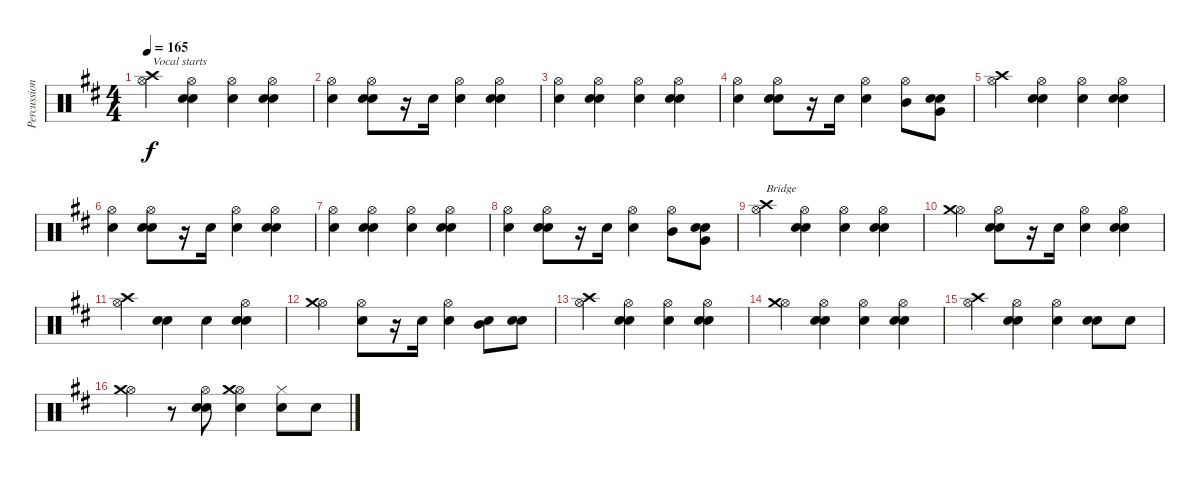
\track ("Percussion" "Percussion") {instrument percussion}
\staff {score}
\articulation defaults
\ts (4 4)
\tempo 165
\clef neutral
\ks d
("Hi-Hat (open)" "Crash high (hit)").4{txt "Vocal starts" dy f} ("Hi-Hat (open)" "Snare (hit) 2" "Electric Snare (hit)").4 ("Hi-Hat (open)" "Snare (hit) 2").4 ("Hi-Hat (open)" "Snare (hit) 2" "Electric Snare (hit)").4 |
("Hi-Hat (open)" "Snare (hit) 2").4 ("Hi-Hat (open)" "Snare (hit) 2" "Electric Snare (hit)").8 r.16 "Snare (hit) 2".16 ("Hi-Hat (open)" "Snare (hit) 2").4 ("Hi-Hat (open)" "Snare (hit) 2" "Electric Snare (hit)").4 |
("Hi-Hat (open)" "Snare (hit) 2").4 ("Hi-Hat (open)" "Snare (hit) 2" "Electric Snare (hit)").4 ("Hi-Hat (open)" "Snare (hit) 2").4 ("Hi-Hat (open)" "Snare (hit) 2" "Electric Snare (hit)").4 |
("Hi-Hat (open)" "Snare (hit) 2").4 ("Hi-Hat (open)" "Snare (hit) 2" "Electric Snare (hit)").8 r.16 "Snare (hit) 2".16 ("Hi-Hat (open)" "Snare (hit) 2").4 ("Mid Tom (hit)" "Hi-Hat (open)").8 ("Very Low Tom (hit)" "Snare (hit) 2" "Electric Snare (hit)").8 |
("Hi-Hat (open)" "Crash high (hit)").4 ("Hi-Hat (open)" "Snare (hit) 2" "Electric Snare (hit)").4 ("Hi-Hat (open)" "Snare (hit) 2").4 ("Hi-Hat (open)" "Snare (hit) 2" "Electric Snare (hit)").4 |
("Hi-Hat (open)" "Snare (hit) 2").4 ("Hi-Hat (open)" "Snare (hit) 2" "Electric Snare (hit)").8 r.16 "Snare (hit) 2".16 ("Hi-Hat (open)" "Snare (hit) 2").4 ("Hi-Hat (open)" "Snare (hit) 2" "Electric Snare (hit)").4 |
("Hi-Hat (open)" "Snare (hit) 2").4 ("Hi-Hat (open)" "Snare (hit) 2" "Electric Snare (hit)").4 ("Hi-Hat (open)" "Snare (hit) 2").4 ("Hi-Hat (open)" "Snare (hit) 2" "Electric Snare (hit)").4 |
("Hi-Hat (open)" "Snare (hit) 2").4 ("Hi-Hat (open)" "Snare (hit) 2" "Electric Snare (hit)").8 r.16 "Snare (hit) 2".16 ("Hi-Hat (open)" "Snare (hit) 2").4 ("Mid Tom (hit)" "Hi-Hat (open)").8 ("Very Low Tom (hit)" "Snare (hit) 2" "Electric Snare (hit)").8 |
("Hi-Hat (open)" "Crash high (hit)").4{txt "Bridge"} ("Hi-Hat (open)" "Snare (hit) 2" "Electric Snare (hit)").4 ("Hi-Hat (open)" "Snare (hit) 2").4 ("Hi-Hat (open)" "Snare (hit) 2" "Electric Snare (hit)").4 |
("Hi-Hat (open)" "Crash medium (hit)").4 ("Hi-Hat (open)" "Snare (hit) 2" "Electric Snare (hit)").8 r.16 "Snare (hit) 2".16 ("Hi-Hat (open)" "Snare (hit) 2").4 ("Hi-Hat (open)" "Snare (hit) 2" "Electric Snare (hit)").4 |
("Hi-Hat (open)" "Crash high (hit)").4 ("Snare (hit) 2" "Electric Snare (hit)").4 "Snare (hit) 2".4 ("Hi-Hat (open)" "Snare (hit) 2" "Electric Snare (hit)").4 |
("Hi-Hat (open)" "Crash medium (hit)").4 ("Hi-Hat (open)" "Electric Snare (hit)").8 r.16 "Snare (hit) 2".16 ("Hi-Hat (open)" "Snare (hit) 2").4 ("Mid Tom (hit)" "Snare (hit) 2").8 ("Snare (hit) 2" "Electric Snare (hit)").8 |
("Hi-Hat (open)" "Crash high (hit)").4 ("Hi-Hat (open)" "Snare (hit) 2" "Electric Snare (hit)").4 ("Hi-Hat (open)" "Snare (hit) 2").4 ("Hi-Hat (open)" "Snare (hit) 2" "Electric Snare (hit)").4 |
("Hi-Hat (open)" "Crash medium (hit)").4 ("Hi-Hat (open)" "Snare (hit) 2" "Electric Snare (hit)").4 ("Hi-Hat (open)" "Snare (hit) 2").4 ("Hi-Hat (open)" "Snare (hit) 2" "Electric Snare (hit)").4 |
("Hi-Hat (open)" "Crash high (hit)").4 ("Hi-Hat (open)" "Snare (hit) 2" "Electric Snare (hit)").4 ("Hi-Hat (open)" "Snare (hit) 2").4 ("Snare (hit) 2" "Electric Snare (hit)").8 "Snare (hit) 2".8 |
("Hi-Hat (open)" "Crash medium (hit)").4 r.8 ("Hi-Hat (open)" "Snare (hit) 2" "Electric Snare (hit)").8 ("Hi-Hat (open)" "Snare (hit) 2" "Crash medium (hit)").4 ("Snare (hit) 2" "Hi-Hat (closed)").8 "Snare (hit) 2".8
